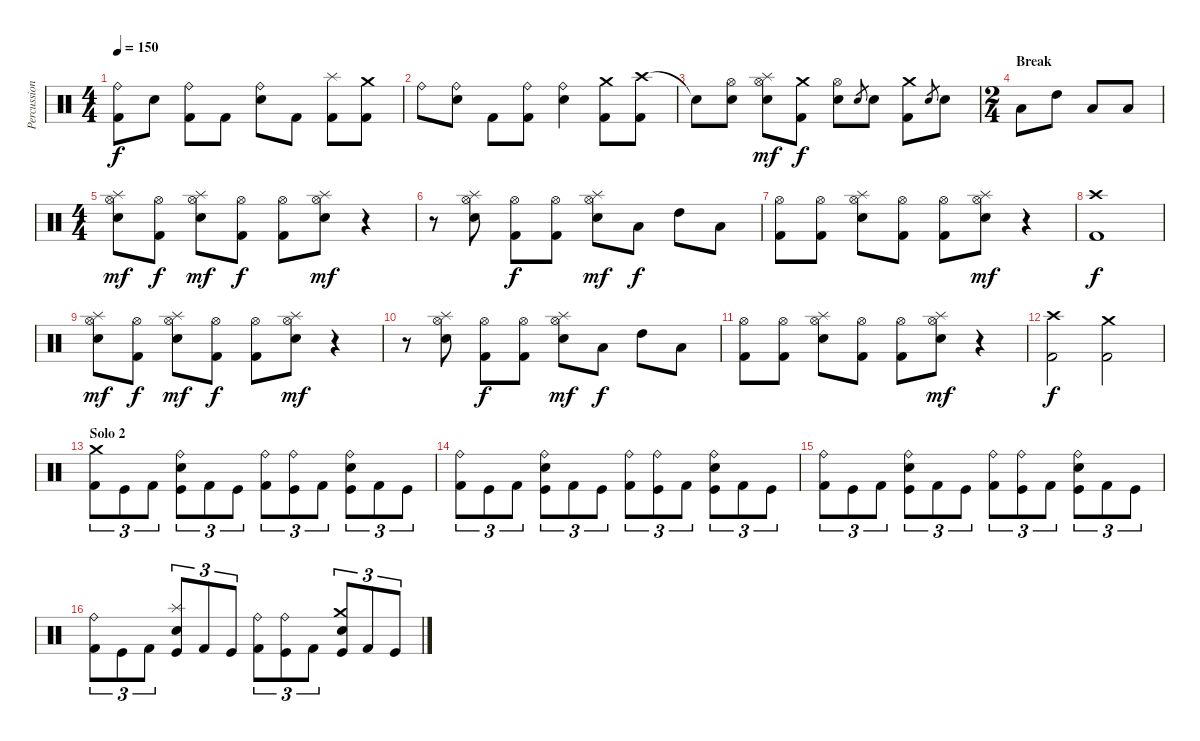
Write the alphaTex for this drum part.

\track ("Percussions" "Percussion") {instrument percussion}
\staff {score}
\articulation defaults
\ts (4 4)
\tempo 150
\clef neutral
\ks c
("Ride (bell)" "Kick (hit) 2").8{dy f} "Electric Snare (hit)".8 ("Ride (bell)" "Kick (hit) 2").8 "Kick (hit) 2".8 ("Ride (bell)" "Electric Snare (hit)").8 "Kick (hit) 2".8 ("Splash (hit)" "Kick (hit) 2").8 ("Crash medium (hit)" "Kick (hit) 2").8 |
"Ride (bell)".8 ("Ride (bell)" "Electric Snare (hit)").8 "Kick (hit) 2".8 ("Ride (bell)" "Kick (hit) 2").8 ("Ride (bell)" "Electric Snare (hit)").4 ("Crash medium (hit)" "Kick (hit) 2").8 ("Crash high (hit)" "Kick (hit) 2").8 |
"Snare (hit)"{t}.8 ("Hi-Hat (open)" "Electric Snare (hit)").8 ("Hi-Hat (open)" "Splash (hit)" "Electric Snare (hit)").8{dy mf} ("Crash medium (hit)" "Kick (hit) 2").8{dy f} ("Hi-Hat (open)" "Electric Snare (hit)").8 "Electric Snare (hit)".8{gr} "Electric Snare (hit)".8 ("Crash medium (hit)" "Kick (hit) 2").8 "Electric Snare (hit)".8{gr} "Electric Snare (hit)".8 |
\ts (2 4)
\section ("" "Break")
"Low Tom (hit)".8 "High Tom (hit)".8 "Low Tom (hit)".8 "Low Floor Tom (hit)".8 |
\ts (4 4)
("Hi-Hat (open)" "Splash (hit)" "Electric Snare (hit)").8{dy mf} ("Hi-Hat (open)" "Kick (hit) 2").8{dy f} ("Hi-Hat (open)" "Splash (hit)" "Electric Snare (hit)").8{dy mf} ("Hi-Hat (open)" "Kick (hit) 2").8{dy f} ("Hi-Hat (open)" "Kick (hit) 2").8 ("Hi-Hat (open)" "Splash (hit)" "Electric Snare (hit)").8{dy mf} r.4 |
r.8 ("Hi-Hat (open)" "Splash (hit)" "Electric Snare (hit)").8 ("Hi-Hat (open)" "Kick (hit) 2").8{dy f} ("Hi-Hat (open)" "Kick (hit) 2").8 ("Hi-Hat (open)" "Splash (hit)" "Electric Snare (hit)").8{dy mf} "Low Tom (hit)".8{dy f} "High Tom (hit)".8 "Low Tom (hit)".8 |
("Hi-Hat (open)" "Kick (hit) 2").8 ("Hi-Hat (open)" "Kick (hit) 2").8 ("Hi-Hat (open)" "Splash (hit)" "Electric Snare (hit)").8 ("Hi-Hat (open)" "Kick (hit) 2").8 ("Hi-Hat (open)" "Kick (hit) 2").8 ("Hi-Hat (open)" "Splash (hit)" "Electric Snare (hit)").8{dy mf} r.4 |
("Crash high (hit)" "Kick (hit) 2").1{dy f} |
("Hi-Hat (open)" "Splash (hit)" "Electric Snare (hit)").8{dy mf} ("Hi-Hat (open)" "Kick (hit) 2").8{dy f} ("Hi-Hat (open)" "Splash (hit)" "Electric Snare (hit)").8{dy mf} ("Hi-Hat (open)" "Kick (hit) 2").8{dy f} ("Hi-Hat (open)" "Kick (hit) 2").8 ("Hi-Hat (open)" "Splash (hit)" "Electric Snare (hit)").8{dy mf} r.4 |
r.8 ("Hi-Hat (open)" "Splash (hit)" "Electric Snare (hit)").8 ("Hi-Hat (open)" "Kick (hit) 2").8{dy f} ("Hi-Hat (open)" "Kick (hit) 2").8 ("Hi-Hat (open)" "Splash (hit)" "Electric Snare (hit)").8{dy mf} "Low Tom (hit)".8{dy f} "High Tom (hit)".8 "Low Tom (hit)".8 |
("Hi-Hat (open)" "Kick (hit) 2").8 ("Hi-Hat (open)" "Kick (hit) 2").8 ("Hi-Hat (open)" "Splash (hit)" "Electric Snare (hit)").8 ("Hi-Hat (open)" "Kick (hit) 2").8 ("Hi-Hat (open)" "Kick (hit) 2").8 ("Hi-Hat (open)" "Splash (hit)" "Electric Snare (hit)").8{dy mf} r.4 |
("Crash high (hit)" "Kick (hit) 2").2{dy f} ("Crash medium (hit)" "Kick (hit) 2").2 |
\section ("" "Solo 2")
("Crash medium (hit)" "Kick (hit) 2").8{tu (3 2)} "Kick (hit)".8{tu (3 2)} "Kick (hit) 2".8{tu (3 2)} ("Ride (bell)" "Electric Snare (hit)" "Kick (hit)").8{tu (3 2)} "Kick (hit) 2".8{tu (3 2)} "Kick (hit)".8{tu (3 2)} ("Ride (bell)" "Kick (hit) 2").8{tu (3 2)} ("Ride (bell)" "Kick (hit)").8{tu (3 2)} "Kick (hit) 2".8{tu (3 2)} ("Ride (bell)" "Electric Snare (hit)" "Kick (hit)").8{tu (3 2)} "Kick (hit) 2".8{tu (3 2)} "Kick (hit)".8{tu (3 2)} |
("Ride (bell)" "Kick (hit) 2").8{tu (3 2)} "Kick (hit)".8{tu (3 2)} "Kick (hit) 2".8{tu (3 2)} ("Ride (bell)" "Electric Snare (hit)" "Kick (hit)").8{tu (3 2)} "Kick (hit) 2".8{tu (3 2)} "Kick (hit)".8{tu (3 2)} ("Ride (bell)" "Kick (hit) 2").8{tu (3 2)} ("Ride (bell)" "Kick (hit)").8{tu (3 2)} "Kick (hit) 2".8{tu (3 2)} ("Ride (bell)" "Electric Snare (hit)" "Kick (hit)").8{tu (3 2)} "Kick (hit) 2".8{tu (3 2)} "Kick (hit)".8{tu (3 2)} |
("Ride (bell)" "Kick (hit) 2").8{tu (3 2)} "Kick (hit)".8{tu (3 2)} "Kick (hit) 2".8{tu (3 2)} ("Ride (bell)" "Electric Snare (hit)" "Kick (hit)").8{tu (3 2)} "Kick (hit) 2".8{tu (3 2)} "Kick (hit)".8{tu (3 2)} ("Ride (bell)" "Kick (hit) 2").8{tu (3 2)} ("Ride (bell)" "Kick (hit)").8{tu (3 2)} "Kick (hit) 2".8{tu (3 2)} ("Ride (bell)" "Electric Snare (hit)" "Kick (hit)").8{tu (3 2)} "Kick (hit) 2".8{tu (3 2)} "Kick (hit)".8{tu (3 2)} |
("Ride (bell)" "Kick (hit) 2").8{tu (3 2)} "Kick (hit)".8{tu (3 2)} "Kick (hit) 2".8{tu (3 2)} ("Splash (hit)" "Electric Snare (hit)" "Kick (hit)").8{tu (3 2)} "Kick (hit) 2".8{tu (3 2)} "Kick (hit)".8{tu (3 2)} ("Ride (bell)" "Kick (hit) 2").8{tu (3 2)} ("Ride (bell)" "Kick (hit)").8{tu (3 2)} "Kick (hit) 2".8{tu (3 2)} ("Crash medium (hit)" "Electric Snare (hit)" "Kick (hit)").8{tu (3 2)} "Kick (hit) 2".8{tu (3 2)} "Kick (hit)".8{tu (3 2)}
